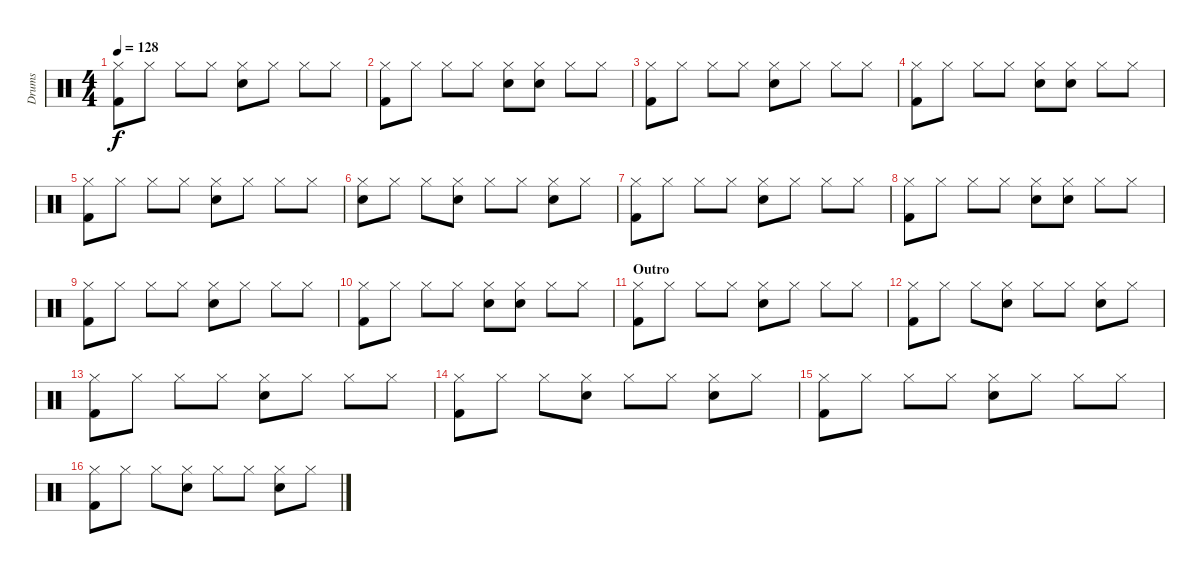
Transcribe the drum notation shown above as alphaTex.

\track ("Drums" "Drums") {instrument percussion}
\staff {score}
\articulation defaults
\ts (4 4)
\tempo 128
\clef neutral
\ks c
("Hi-Hat (closed)" "Kick (hit) 2").8{dy f} "Hi-Hat (closed)".8 "Hi-Hat (closed)".8 "Hi-Hat (closed)".8 ("Hi-Hat (closed)" "Snare (hit) 2").8 "Hi-Hat (closed)".8 "Hi-Hat (closed)".8 "Hi-Hat (closed)".8 |
("Hi-Hat (closed)" "Kick (hit) 2").8 "Hi-Hat (closed)".8 "Hi-Hat (closed)".8 "Hi-Hat (closed)".8 ("Hi-Hat (closed)" "Snare (hit) 2").8 ("Hi-Hat (closed)" "Snare (hit) 2").8 "Hi-Hat (closed)".8 "Hi-Hat (closed)".8 |
("Hi-Hat (closed)" "Kick (hit) 2").8 "Hi-Hat (closed)".8 "Hi-Hat (closed)".8 "Hi-Hat (closed)".8 ("Hi-Hat (closed)" "Snare (hit) 2").8 "Hi-Hat (closed)".8 "Hi-Hat (closed)".8 "Hi-Hat (closed)".8 |
("Hi-Hat (closed)" "Kick (hit) 2").8 "Hi-Hat (closed)".8 "Hi-Hat (closed)".8 "Hi-Hat (closed)".8 ("Hi-Hat (closed)" "Snare (hit) 2").8 ("Hi-Hat (closed)" "Snare (hit) 2").8 "Hi-Hat (closed)".8 "Hi-Hat (closed)".8 |
("Hi-Hat (closed)" "Kick (hit) 2").8 "Hi-Hat (closed)".8 "Hi-Hat (closed)".8 "Hi-Hat (closed)".8 ("Hi-Hat (closed)" "Snare (hit) 2").8 "Hi-Hat (closed)".8 "Hi-Hat (closed)".8 "Hi-Hat (closed)".8 |
("Hi-Hat (closed)" "Snare (hit) 2").8 "Hi-Hat (closed)".8 "Hi-Hat (closed)".8 ("Hi-Hat (closed)" "Snare (hit) 2").8 "Hi-Hat (closed)".8 "Hi-Hat (closed)".8 ("Hi-Hat (closed)" "Snare (hit) 2").8 "Hi-Hat (closed)".8 |
("Hi-Hat (closed)" "Kick (hit) 2").8 "Hi-Hat (closed)".8 "Hi-Hat (closed)".8 "Hi-Hat (closed)".8 ("Hi-Hat (closed)" "Snare (hit) 2").8 "Hi-Hat (closed)".8 "Hi-Hat (closed)".8 "Hi-Hat (closed)".8 |
("Hi-Hat (closed)" "Kick (hit) 2").8 "Hi-Hat (closed)".8 "Hi-Hat (closed)".8 "Hi-Hat (closed)".8 ("Hi-Hat (closed)" "Snare (hit) 2").8 ("Hi-Hat (closed)" "Snare (hit) 2").8 "Hi-Hat (closed)".8 "Hi-Hat (closed)".8 |
("Hi-Hat (closed)" "Kick (hit) 2").8 "Hi-Hat (closed)".8 "Hi-Hat (closed)".8 "Hi-Hat (closed)".8 ("Hi-Hat (closed)" "Snare (hit) 2").8 "Hi-Hat (closed)".8 "Hi-Hat (closed)".8 "Hi-Hat (closed)".8 |
("Hi-Hat (closed)" "Kick (hit) 2").8 "Hi-Hat (closed)".8 "Hi-Hat (closed)".8 "Hi-Hat (closed)".8 ("Hi-Hat (closed)" "Snare (hit) 2").8 ("Hi-Hat (closed)" "Snare (hit) 2").8 "Hi-Hat (closed)".8 "Hi-Hat (closed)".8 |
\section ("" "Outro")
("Hi-Hat (closed)" "Kick (hit) 2").8 "Hi-Hat (closed)".8 "Hi-Hat (closed)".8 "Hi-Hat (closed)".8 ("Hi-Hat (closed)" "Snare (hit) 2").8 "Hi-Hat (closed)".8 "Hi-Hat (closed)".8 "Hi-Hat (closed)".8 |
("Hi-Hat (closed)" "Kick (hit) 2").8 "Hi-Hat (closed)".8 "Hi-Hat (closed)".8 ("Hi-Hat (closed)" "Snare (hit) 2").8 "Hi-Hat (closed)".8 "Hi-Hat (closed)".8 ("Hi-Hat (closed)" "Snare (hit) 2").8 "Hi-Hat (closed)".8 |
("Hi-Hat (closed)" "Kick (hit) 2").8 "Hi-Hat (closed)".8 "Hi-Hat (closed)".8 "Hi-Hat (closed)".8 ("Hi-Hat (closed)" "Snare (hit) 2").8 "Hi-Hat (closed)".8 "Hi-Hat (closed)".8 "Hi-Hat (closed)".8 |
("Hi-Hat (closed)" "Kick (hit) 2").8 "Hi-Hat (closed)".8 "Hi-Hat (closed)".8 ("Hi-Hat (closed)" "Snare (hit) 2").8 "Hi-Hat (closed)".8 "Hi-Hat (closed)".8 ("Hi-Hat (closed)" "Snare (hit) 2").8 "Hi-Hat (closed)".8 |
("Hi-Hat (closed)" "Kick (hit) 2").8 "Hi-Hat (closed)".8 "Hi-Hat (closed)".8 "Hi-Hat (closed)".8 ("Hi-Hat (closed)" "Snare (hit) 2").8 "Hi-Hat (closed)".8 "Hi-Hat (closed)".8 "Hi-Hat (closed)".8 |
("Hi-Hat (closed)" "Kick (hit) 2").8 "Hi-Hat (closed)".8 "Hi-Hat (closed)".8 ("Hi-Hat (closed)" "Snare (hit) 2").8 "Hi-Hat (closed)".8 "Hi-Hat (closed)".8 ("Hi-Hat (closed)" "Snare (hit) 2").8 "Hi-Hat (closed)".8
